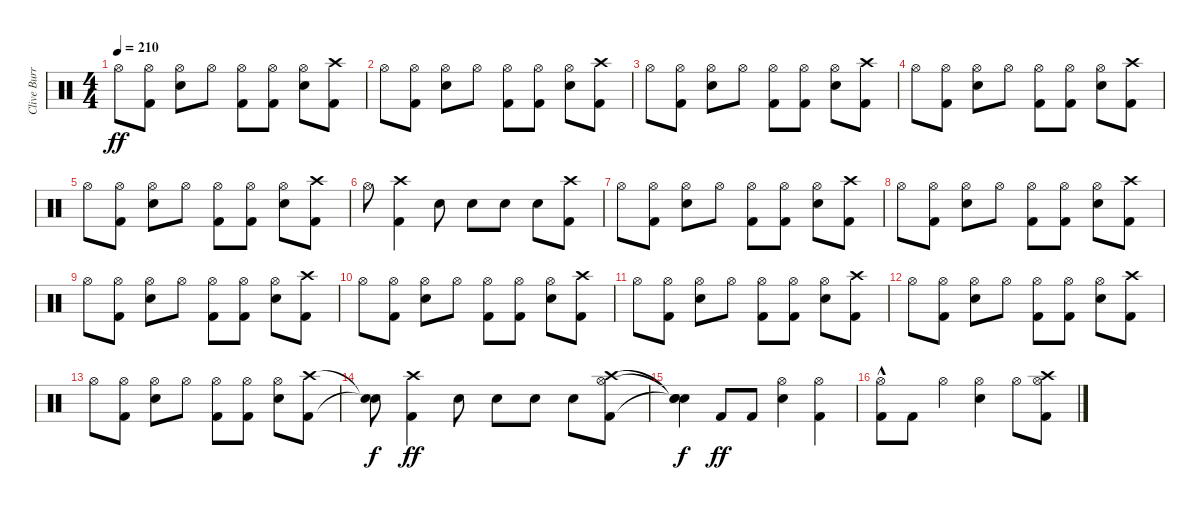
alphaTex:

\track ("Clive Burr" "Clive Burr") {instrument percussion}
\staff {score}
\articulation defaults
\ts (4 4)
\tempo 210
\clef neutral
\ks c "Hi-Hat (open)".8{dy ff}
("Kick (hit) 2" "Hi-Hat (open)").8 ("Snare (hit) 2" "Hi-Hat (open)").8 "Hi-Hat (open)".8 ("Kick (hit) 2" "Hi-Hat (open)").8 ("Kick (hit) 2" "Hi-Hat (open)").8 ("Snare (hit) 2" "Hi-Hat (open)").8 ("Kick (hit) 2" "Crash high (hit)").8 |
"Hi-Hat (open)".8 ("Kick (hit) 2" "Hi-Hat (open)").8 ("Snare (hit) 2" "Hi-Hat (open)").8 "Hi-Hat (open)".8 ("Kick (hit) 2" "Hi-Hat (open)").8 ("Kick (hit) 2" "Hi-Hat (open)").8 ("Snare (hit) 2" "Hi-Hat (open)").8 ("Kick (hit) 2" "Crash high (hit)").8 |
"Hi-Hat (open)".8 ("Kick (hit) 2" "Hi-Hat (open)").8 ("Snare (hit) 2" "Hi-Hat (open)").8 "Hi-Hat (open)".8 ("Kick (hit) 2" "Hi-Hat (open)").8 ("Kick (hit) 2" "Hi-Hat (open)").8 ("Snare (hit) 2" "Hi-Hat (open)").8 ("Kick (hit) 2" "Crash high (hit)").8 |
"Hi-Hat (open)".8 ("Kick (hit) 2" "Hi-Hat (open)").8 ("Snare (hit) 2" "Hi-Hat (open)").8 "Hi-Hat (open)".8 ("Kick (hit) 2" "Hi-Hat (open)").8 ("Kick (hit) 2" "Hi-Hat (open)").8 ("Snare (hit) 2" "Hi-Hat (open)").8 ("Kick (hit) 2" "Crash high (hit)").8 |
"Hi-Hat (open)".8 ("Kick (hit) 2" "Hi-Hat (open)").8 ("Snare (hit) 2" "Hi-Hat (open)").8 "Hi-Hat (open)".8 ("Kick (hit) 2" "Hi-Hat (open)").8 ("Kick (hit) 2" "Hi-Hat (open)").8 ("Snare (hit) 2" "Hi-Hat (open)").8 ("Kick (hit) 2" "Crash high (hit)").8 |
"Hi-Hat (open)".8 ("Kick (hit) 2" "Crash high (hit)").4 "Snare (hit) 2".8 "Snare (hit) 2".8 "Snare (hit) 2".8 "Snare (hit) 2".8 ("Kick (hit) 2" "Crash high (hit)").8 |
"Hi-Hat (open)".8 ("Kick (hit) 2" "Hi-Hat (open)").8 ("Snare (hit) 2" "Hi-Hat (open)").8 "Hi-Hat (open)".8 ("Kick (hit) 2" "Hi-Hat (open)").8 ("Kick (hit) 2" "Hi-Hat (open)").8 ("Snare (hit) 2" "Hi-Hat (open)").8 ("Kick (hit) 2" "Crash high (hit)").8 |
"Hi-Hat (open)".8 ("Kick (hit) 2" "Hi-Hat (open)").8 ("Snare (hit) 2" "Hi-Hat (open)").8 "Hi-Hat (open)".8 ("Kick (hit) 2" "Hi-Hat (open)").8 ("Kick (hit) 2" "Hi-Hat (open)").8 ("Snare (hit) 2" "Hi-Hat (open)").8 ("Kick (hit) 2" "Crash high (hit)").8 |
"Hi-Hat (open)".8 ("Kick (hit) 2" "Hi-Hat (open)").8 ("Snare (hit) 2" "Hi-Hat (open)").8 "Hi-Hat (open)".8 ("Kick (hit) 2" "Hi-Hat (open)").8 ("Kick (hit) 2" "Hi-Hat (open)").8 ("Snare (hit) 2" "Hi-Hat (open)").8 ("Kick (hit) 2" "Crash high (hit)").8 |
"Hi-Hat (open)".8 ("Kick (hit) 2" "Hi-Hat (open)").8 ("Snare (hit) 2" "Hi-Hat (open)").8 "Hi-Hat (open)".8 ("Kick (hit) 2" "Hi-Hat (open)").8 ("Kick (hit) 2" "Hi-Hat (open)").8 ("Snare (hit) 2" "Hi-Hat (open)").8 ("Kick (hit) 2" "Crash high (hit)").8 |
"Hi-Hat (open)".8 ("Kick (hit) 2" "Hi-Hat (open)").8 ("Snare (hit) 2" "Hi-Hat (open)").8 "Hi-Hat (open)".8 ("Kick (hit) 2" "Hi-Hat (open)").8 ("Kick (hit) 2" "Hi-Hat (open)").8 ("Snare (hit) 2" "Hi-Hat (open)").8 ("Kick (hit) 2" "Crash high (hit)").8 |
"Hi-Hat (open)".8 ("Kick (hit) 2" "Hi-Hat (open)").8 ("Snare (hit) 2" "Hi-Hat (open)").8 "Hi-Hat (open)".8 ("Kick (hit) 2" "Hi-Hat (open)").8 ("Kick (hit) 2" "Hi-Hat (open)").8 ("Snare (hit) 2" "Hi-Hat (open)").8 ("Kick (hit) 2" "Crash high (hit)").8 |
"Hi-Hat (open)".8 ("Kick (hit) 2" "Hi-Hat (open)").8 ("Snare (hit) 2" "Hi-Hat (open)").8 "Hi-Hat (open)".8 ("Kick (hit) 2" "Hi-Hat (open)").8 ("Kick (hit) 2" "Hi-Hat (open)").8 ("Snare (hit) 2" "Hi-Hat (open)").8 ("Kick (hit) 2" "Crash high (hit)").8 |
("Snare (hit)"{t} "Snare (hit)"{t}).8{dy f} ("Kick (hit) 2" "Crash high (hit)").4{dy ff} "Snare (hit) 2".8 "Snare (hit) 2".8 "Snare (hit) 2".8 "Snare (hit) 2".8 ("Kick (hit) 2" "Hi-Hat (open)" "Crash high (hit)").8 |
("Snare (hit)"{t} "Snare (hit)"{t} "Snare (hit)"{t}).4{dy f} "Kick (hit) 2".8{dy ff} "Kick (hit) 2".8 ("Snare (hit) 2" "Hi-Hat (open)").4 ("Kick (hit) 2" "Hi-Hat (open)").4 |
("Kick (hit) 2" "Hi-Hat (open)"{hac}).8 "Kick (hit) 2".8 "Hi-Hat (open)".4 ("Snare (hit) 2" "Hi-Hat (open)").4 "Hi-Hat (open)".8 ("Kick (hit) 2" "Hi-Hat (open)" "Crash high (hit)").8
